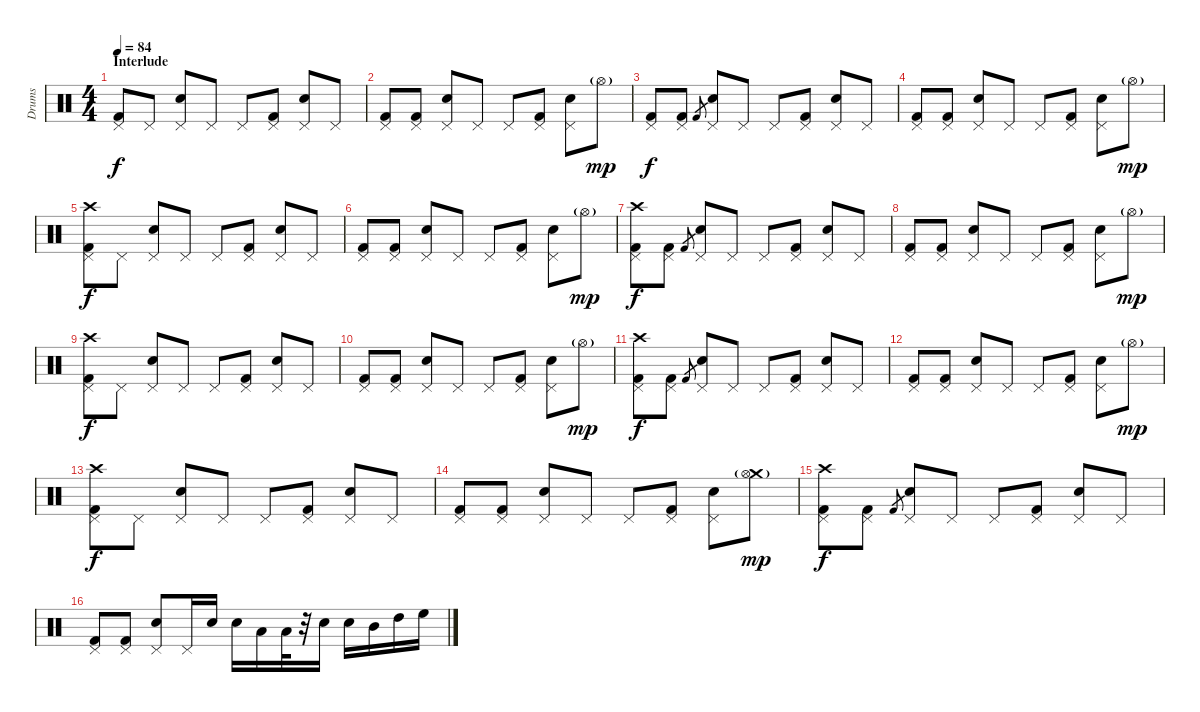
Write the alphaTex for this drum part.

\track ("Drums" "Drums") {instrument percussion}
\staff {score}
\articulation defaults
\ts (4 4)
\section ("" "Interlude")
\tempo 84
\clef neutral
\ks c
("Pedal Hi-Hat (hit)" "Kick (hit) 2").8{dy f} "Pedal Hi-Hat (hit)".8 ("Pedal Hi-Hat (hit)" "Electric Snare (hit)").8 "Pedal Hi-Hat (hit)".8 "Pedal Hi-Hat (hit)".8 ("Pedal Hi-Hat (hit)" "Kick (hit) 2").8 ("Pedal Hi-Hat (hit)" "Electric Snare (hit)").8 "Pedal Hi-Hat (hit)".8 |
("Pedal Hi-Hat (hit)" "Kick (hit) 2").8 ("Pedal Hi-Hat (hit)" "Kick (hit) 2").8 ("Pedal Hi-Hat (hit)" "Electric Snare (hit)").8 "Pedal Hi-Hat (hit)".8 "Pedal Hi-Hat (hit)".8 ("Pedal Hi-Hat (hit)" "Kick (hit) 2").8 ("Pedal Hi-Hat (hit)" "Electric Snare (hit)").8 "Hi-Hat (open)"{g}.8{dy mp} |
("Pedal Hi-Hat (hit)" "Kick (hit) 2").8{dy f} ("Pedal Hi-Hat (hit)" "Kick (hit) 2").8 "Kick (hit) 2".8{gr} ("Pedal Hi-Hat (hit)" "Electric Snare (hit)").8 "Pedal Hi-Hat (hit)".8 "Pedal Hi-Hat (hit)".8 ("Pedal Hi-Hat (hit)" "Kick (hit) 2").8 ("Pedal Hi-Hat (hit)" "Electric Snare (hit)").8 "Pedal Hi-Hat (hit)".8 |
("Pedal Hi-Hat (hit)" "Kick (hit) 2").8 ("Pedal Hi-Hat (hit)" "Kick (hit) 2").8 ("Pedal Hi-Hat (hit)" "Electric Snare (hit)").8 "Pedal Hi-Hat (hit)".8 "Pedal Hi-Hat (hit)".8 ("Pedal Hi-Hat (hit)" "Kick (hit) 2").8 ("Pedal Hi-Hat (hit)" "Electric Snare (hit)").8 "Hi-Hat (open)"{g}.8{dy mp} |
("Crash high (hit)" "Pedal Hi-Hat (hit)" "Kick (hit) 2").8{dy f} "Pedal Hi-Hat (hit)".8 ("Pedal Hi-Hat (hit)" "Electric Snare (hit)").8 "Pedal Hi-Hat (hit)".8 "Pedal Hi-Hat (hit)".8 ("Pedal Hi-Hat (hit)" "Kick (hit) 2").8 ("Pedal Hi-Hat (hit)" "Electric Snare (hit)").8 "Pedal Hi-Hat (hit)".8 |
("Pedal Hi-Hat (hit)" "Kick (hit) 2").8 ("Pedal Hi-Hat (hit)" "Kick (hit) 2").8 ("Pedal Hi-Hat (hit)" "Electric Snare (hit)").8 "Pedal Hi-Hat (hit)".8 "Pedal Hi-Hat (hit)".8 ("Pedal Hi-Hat (hit)" "Kick (hit) 2").8 ("Pedal Hi-Hat (hit)" "Electric Snare (hit)").8 "Hi-Hat (open)"{g}.8{dy mp} |
("Crash high (hit)" "Pedal Hi-Hat (hit)" "Kick (hit) 2").8{dy f} ("Pedal Hi-Hat (hit)" "Kick (hit) 2").8 "Kick (hit) 2".8{gr} ("Pedal Hi-Hat (hit)" "Electric Snare (hit)").8 "Pedal Hi-Hat (hit)".8 "Pedal Hi-Hat (hit)".8 ("Pedal Hi-Hat (hit)" "Kick (hit) 2").8 ("Pedal Hi-Hat (hit)" "Electric Snare (hit)").8 "Pedal Hi-Hat (hit)".8 |
("Pedal Hi-Hat (hit)" "Kick (hit) 2").8 ("Pedal Hi-Hat (hit)" "Kick (hit) 2").8 ("Pedal Hi-Hat (hit)" "Electric Snare (hit)").8 "Pedal Hi-Hat (hit)".8 "Pedal Hi-Hat (hit)".8 ("Pedal Hi-Hat (hit)" "Kick (hit) 2").8 ("Pedal Hi-Hat (hit)" "Electric Snare (hit)").8 "Hi-Hat (open)"{g}.8{dy mp} |
("Crash high (hit)" "Pedal Hi-Hat (hit)" "Kick (hit) 2").8{dy f} "Pedal Hi-Hat (hit)".8 ("Pedal Hi-Hat (hit)" "Electric Snare (hit)").8 "Pedal Hi-Hat (hit)".8 "Pedal Hi-Hat (hit)".8 ("Pedal Hi-Hat (hit)" "Kick (hit) 2").8 ("Pedal Hi-Hat (hit)" "Electric Snare (hit)").8 "Pedal Hi-Hat (hit)".8 |
("Pedal Hi-Hat (hit)" "Kick (hit) 2").8 ("Pedal Hi-Hat (hit)" "Kick (hit) 2").8 ("Pedal Hi-Hat (hit)" "Electric Snare (hit)").8 "Pedal Hi-Hat (hit)".8 "Pedal Hi-Hat (hit)".8 ("Pedal Hi-Hat (hit)" "Kick (hit) 2").8 ("Pedal Hi-Hat (hit)" "Electric Snare (hit)").8 "Hi-Hat (open)"{g}.8{dy mp} |
("Crash high (hit)" "Pedal Hi-Hat (hit)" "Kick (hit) 2").8{dy f} ("Pedal Hi-Hat (hit)" "Kick (hit) 2").8 "Kick (hit) 2".8{gr} ("Pedal Hi-Hat (hit)" "Electric Snare (hit)").8 "Pedal Hi-Hat (hit)".8 "Pedal Hi-Hat (hit)".8 ("Pedal Hi-Hat (hit)" "Kick (hit) 2").8 ("Pedal Hi-Hat (hit)" "Electric Snare (hit)").8 "Pedal Hi-Hat (hit)".8 |
("Pedal Hi-Hat (hit)" "Kick (hit) 2").8 ("Pedal Hi-Hat (hit)" "Kick (hit) 2").8 ("Pedal Hi-Hat (hit)" "Electric Snare (hit)").8 "Pedal Hi-Hat (hit)".8 "Pedal Hi-Hat (hit)".8 ("Pedal Hi-Hat (hit)" "Kick (hit) 2").8 ("Pedal Hi-Hat (hit)" "Electric Snare (hit)").8 "Hi-Hat (open)"{g}.8{dy mp} |
("Crash high (hit)" "Pedal Hi-Hat (hit)" "Kick (hit) 2").8{dy f} "Pedal Hi-Hat (hit)".8 ("Pedal Hi-Hat (hit)" "Electric Snare (hit)").8 "Pedal Hi-Hat (hit)".8 "Pedal Hi-Hat (hit)".8 ("Pedal Hi-Hat (hit)" "Kick (hit) 2").8 ("Pedal Hi-Hat (hit)" "Electric Snare (hit)").8 "Pedal Hi-Hat (hit)".8 |
("Pedal Hi-Hat (hit)" "Kick (hit) 2").8 ("Pedal Hi-Hat (hit)" "Kick (hit) 2").8 ("Pedal Hi-Hat (hit)" "Electric Snare (hit)").8 "Pedal Hi-Hat (hit)".8 "Pedal Hi-Hat (hit)".8 ("Pedal Hi-Hat (hit)" "Kick (hit) 2").8 ("Pedal Hi-Hat (hit)" "Electric Snare (hit)").8 ("Crash medium (hit)" "Hi-Hat (open)"{g}).8{dy mp} |
("Crash high (hit)" "Pedal Hi-Hat (hit)" "Kick (hit) 2").8{dy f} ("Pedal Hi-Hat (hit)" "Kick (hit) 2").8 "Kick (hit) 2".8{gr} ("Pedal Hi-Hat (hit)" "Electric Snare (hit)").8 "Pedal Hi-Hat (hit)".8 "Pedal Hi-Hat (hit)".8 ("Pedal Hi-Hat (hit)" "Kick (hit) 2").8 ("Pedal Hi-Hat (hit)" "Electric Snare (hit)").8 "Pedal Hi-Hat (hit)".8 |
("Pedal Hi-Hat (hit)" "Kick (hit) 2").8 ("Pedal Hi-Hat (hit)" "Kick (hit) 2").8 ("Pedal Hi-Hat (hit)" "Electric Snare (hit)").8 "Pedal Hi-Hat (hit)".16 "Electric Snare (hit)".16 "Electric Snare (hit)".16 "Low Tom (hit)".16 "Low Tom (hit)".32 r.32 "Electric Snare (hit)".16 "Electric Snare (hit)".16 "Mid Tom (hit)".16 "High Tom (hit)".16 "High Floor Tom (hit)".16
